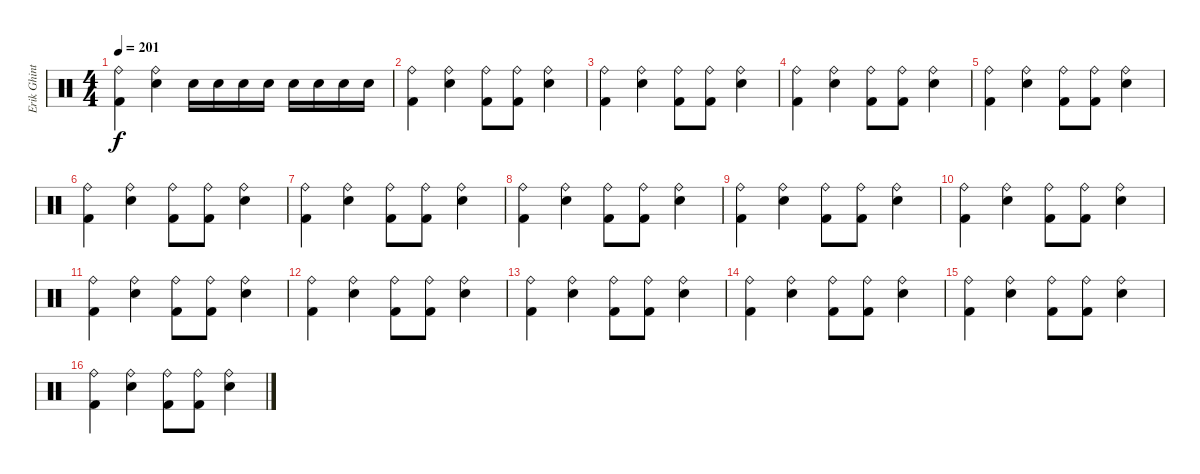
\track ("Erik Ghint" "Erik Ghint") {instrument percussion}
\staff {score}
\articulation defaults
\ts (4 4)
\tempo 201
\clef neutral
\ks c
("Ride (bell)" "Kick (hit) 2").4{dy f} ("Ride (bell)" "Snare (hit) 2").4 "Snare (hit) 2".16 "Snare (hit) 2".16 "Snare (hit) 2".16 "Snare (hit) 2".16 "Snare (hit) 2".16 "Snare (hit) 2".16 "Snare (hit) 2".16 "Snare (hit) 2".16 |
("Ride (bell)" "Kick (hit) 2").4 ("Ride (bell)" "Snare (hit) 2").4 ("Ride (bell)" "Kick (hit) 2").8 ("Ride (bell)" "Kick (hit) 2").8 ("Ride (bell)" "Snare (hit) 2").4 |
("Ride (bell)" "Kick (hit) 2").4 ("Ride (bell)" "Snare (hit) 2").4 ("Ride (bell)" "Kick (hit) 2").8 ("Ride (bell)" "Kick (hit) 2").8 ("Ride (bell)" "Snare (hit) 2").4 |
("Ride (bell)" "Kick (hit) 2").4 ("Ride (bell)" "Snare (hit) 2").4 ("Ride (bell)" "Kick (hit) 2").8 ("Ride (bell)" "Kick (hit) 2").8 ("Ride (bell)" "Snare (hit) 2").4 |
("Ride (bell)" "Kick (hit) 2").4 ("Ride (bell)" "Snare (hit) 2").4 ("Ride (bell)" "Kick (hit) 2").8 ("Ride (bell)" "Kick (hit) 2").8 ("Ride (bell)" "Snare (hit) 2").4 |
("Ride (bell)" "Kick (hit) 2").4 ("Ride (bell)" "Snare (hit) 2").4 ("Ride (bell)" "Kick (hit) 2").8 ("Ride (bell)" "Kick (hit) 2").8 ("Ride (bell)" "Snare (hit) 2").4 |
("Ride (bell)" "Kick (hit) 2").4 ("Ride (bell)" "Snare (hit) 2").4 ("Ride (bell)" "Kick (hit) 2").8 ("Ride (bell)" "Kick (hit) 2").8 ("Ride (bell)" "Snare (hit) 2").4 |
("Ride (bell)" "Kick (hit) 2").4 ("Ride (bell)" "Snare (hit) 2").4 ("Ride (bell)" "Kick (hit) 2").8 ("Ride (bell)" "Kick (hit) 2").8 ("Ride (bell)" "Snare (hit) 2").4 |
("Ride (bell)" "Kick (hit) 2").4 ("Ride (bell)" "Snare (hit) 2").4 ("Ride (bell)" "Kick (hit) 2").8 ("Ride (bell)" "Kick (hit) 2").8 ("Ride (bell)" "Snare (hit) 2").4 |
("Ride (bell)" "Kick (hit) 2").4 ("Ride (bell)" "Snare (hit) 2").4 ("Ride (bell)" "Kick (hit) 2").8 ("Ride (bell)" "Kick (hit) 2").8 ("Ride (bell)" "Snare (hit) 2").4 |
("Ride (bell)" "Kick (hit) 2").4 ("Ride (bell)" "Snare (hit) 2").4 ("Ride (bell)" "Kick (hit) 2").8 ("Ride (bell)" "Kick (hit) 2").8 ("Ride (bell)" "Snare (hit) 2").4 |
("Ride (bell)" "Kick (hit) 2").4 ("Ride (bell)" "Snare (hit) 2").4 ("Ride (bell)" "Kick (hit) 2").8 ("Ride (bell)" "Kick (hit) 2").8 ("Ride (bell)" "Snare (hit) 2").4 |
("Ride (bell)" "Kick (hit) 2").4 ("Ride (bell)" "Snare (hit) 2").4 ("Ride (bell)" "Kick (hit) 2").8 ("Ride (bell)" "Kick (hit) 2").8 ("Ride (bell)" "Snare (hit) 2").4 |
("Ride (bell)" "Kick (hit) 2").4 ("Ride (bell)" "Snare (hit) 2").4 ("Ride (bell)" "Kick (hit) 2").8 ("Ride (bell)" "Kick (hit) 2").8 ("Ride (bell)" "Snare (hit) 2").4 |
("Ride (bell)" "Kick (hit) 2").4 ("Ride (bell)" "Snare (hit) 2").4 ("Ride (bell)" "Kick (hit) 2").8 ("Ride (bell)" "Kick (hit) 2").8 ("Ride (bell)" "Snare (hit) 2").4 |
("Ride (bell)" "Kick (hit) 2").4 ("Ride (bell)" "Snare (hit) 2").4 ("Ride (bell)" "Kick (hit) 2").8 ("Ride (bell)" "Kick (hit) 2").8 ("Ride (bell)" "Snare (hit) 2").4
